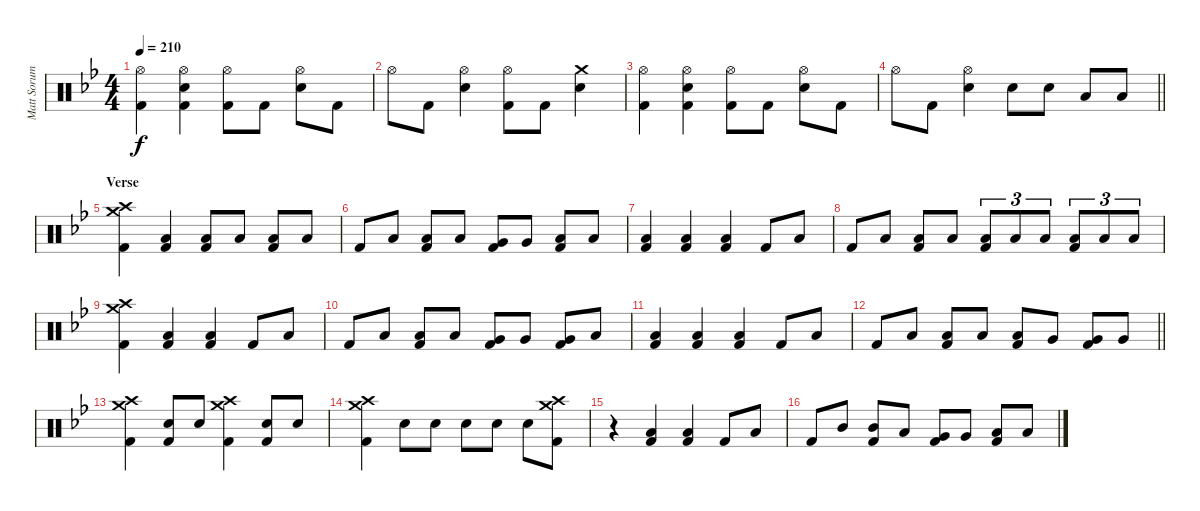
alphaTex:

\track ("Matt Sorum - Drums" "Matt Sorum") {instrument percussion}
\staff {score}
\articulation defaults
\ts (4 4)
\tempo 210
\clef neutral
\ks bb
("Hi-Hat (open)" "Kick (hit) 2").4{dy f} ("Hi-Hat (open)" "Snare (hit) 2" "Kick (hit) 2").4 ("Hi-Hat (open)" "Kick (hit) 2").8 "Kick (hit) 2".8 ("Hi-Hat (open)" "Snare (hit) 2").8 "Kick (hit) 2".8 |
"Hi-Hat (open)".8 "Kick (hit) 2".8 ("Hi-Hat (open)" "Snare (hit) 2").4 ("Hi-Hat (open)" "Kick (hit) 2").8 "Kick (hit) 2".8 ("Crash medium (hit)" "Snare (hit) 2").4 |
("Hi-Hat (open)" "Kick (hit) 2").4 ("Hi-Hat (open)" "Snare (hit) 2" "Kick (hit) 2").4 ("Hi-Hat (open)" "Kick (hit) 2").8 "Kick (hit) 2".8 ("Hi-Hat (open)" "Snare (hit) 2").8 "Kick (hit) 2".8 |
\barLineRight lightlight "Hi-Hat (open)".8 "Kick (hit) 2".8
("Hi-Hat (open)" "Snare (hit) 2").4 "Snare (hit) 2".8 "Snare (hit) 2".8 "Low Tom (hit)".8 "Low Tom (hit)".8 |
\section ("" "Verse")
("Crash medium (hit)" "Crash high (hit)" "Kick (hit) 2").4 ("Low Tom (hit)" "Kick (hit) 2").4 ("Low Tom (hit)" "Kick (hit) 2").8 "Low Tom (hit)".8 ("Low Tom (hit)" "Kick (hit) 2").8 "Low Tom (hit)".8 |
"Kick (hit) 2".8 "Low Tom (hit)".8 ("Low Tom (hit)" "Kick (hit) 2").8 "Low Tom (hit)".8 ("Very Low Tom (hit)" "Kick (hit) 2").8 "Very Low Tom (hit)".8 ("Low Floor Tom (hit)" "Kick (hit) 2").8 "Low Floor Tom (hit)".8 |
("Low Tom (hit)" "Kick (hit) 2").4 ("Low Tom (hit)" "Kick (hit) 2").4 ("Low Tom (hit)" "Kick (hit) 2").4 "Kick (hit) 2".8 "Low Tom (hit)".8 |
"Kick (hit) 2".8 "Low Tom (hit)".8 ("Low Tom (hit)" "Kick (hit) 2").8 "Low Tom (hit)".8 ("Low Tom (hit)" "Kick (hit) 2").8{tu (3 2)} "Low Tom (hit)".8{tu (3 2)} "Low Tom (hit)".8{tu (3 2)} ("Low Tom (hit)" "Kick (hit) 2").8{tu (3 2)} "Low Tom (hit)".8{tu (3 2)} "Low Tom (hit)".8{tu (3 2)} |
("Crash medium (hit)" "Crash high (hit)" "Kick (hit) 2").4 ("Low Tom (hit)" "Kick (hit) 2").4 ("Low Tom (hit)" "Kick (hit) 2").4 "Kick (hit) 2".8 "Low Tom (hit)".8 |
"Kick (hit) 2".8 "Low Tom (hit)".8 ("Low Tom (hit)" "Kick (hit) 2").8 "Low Tom (hit)".8 ("Very Low Tom (hit)" "Kick (hit) 2").8 "Very Low Tom (hit)".8 ("Very Low Tom (hit)" "Kick (hit) 2").8 "Low Floor Tom (hit)".8 |
("Low Tom (hit)" "Kick (hit) 2").4 ("Low Tom (hit)" "Kick (hit) 2").4 ("Low Tom (hit)" "Kick (hit) 2").4 "Kick (hit) 2".8 "Low Tom (hit)".8 |
\barLineRight lightlight "Kick (hit) 2".8 "Low Tom (hit)".8
("Low Tom (hit)" "Kick (hit) 2").8 "Low Tom (hit)".8 ("Low Tom (hit)" "Kick (hit) 2").8 "Very Low Tom (hit)".8 ("Very Low Tom (hit)" "Kick (hit) 2").8 "Very Low Tom (hit)".8 |
("Crash medium (hit)" "Crash high (hit)" "Kick (hit) 2").4 ("Snare (hit) 2" "Kick (hit) 2").8 "Snare (hit) 2".8 ("Crash high (hit)" "Crash medium (hit)" "Kick (hit) 2").4 ("Snare (hit) 2" "Kick (hit) 2").8 "Snare (hit) 2".8 |
("Crash medium (hit)" "Crash high (hit)" "Kick (hit) 2").4 "Snare (hit) 2".8 "Snare (hit) 2".8 "Snare (hit) 2".8 "Snare (hit) 2".8 "Snare (hit) 2".8 ("Crash medium (hit)" "Crash high (hit)" "Kick (hit) 2").8 |
r.4 ("Low Tom (hit)" "Kick (hit) 2").4 ("Low Tom (hit)" "Kick (hit) 2").4 "Kick (hit) 2".8 "Low Tom (hit)".8 |
"Kick (hit) 2".8 "Mid Tom (hit)".8 ("Mid Tom (hit)" "Kick (hit) 2").8 "Low Tom (hit)".8 ("Very Low Tom (hit)" "Kick (hit) 2").8 "Very Low Tom (hit)".8 ("Low Floor Tom (hit)" "Kick (hit) 2").8 "Low Floor Tom (hit)".8
